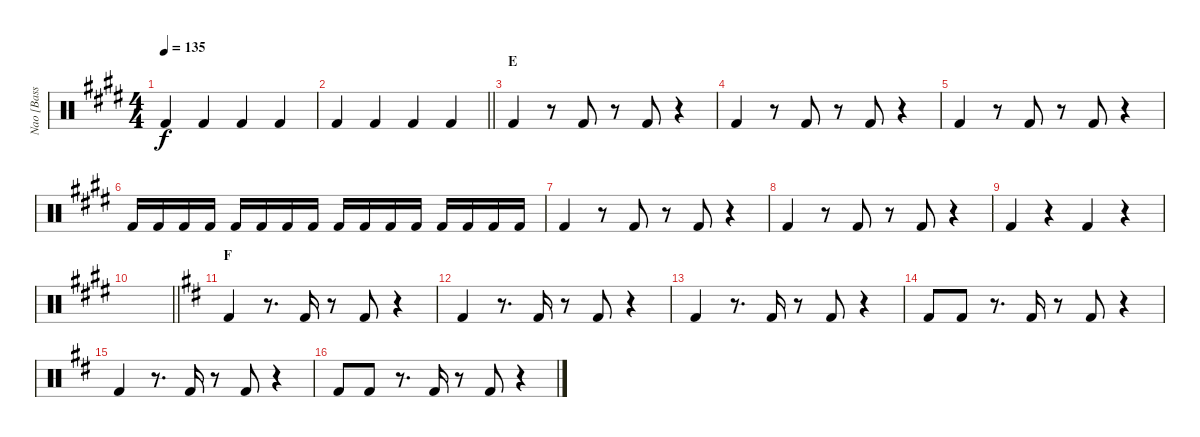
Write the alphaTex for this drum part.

\track ("Nao [Bass Drum]" "Nao [Bass ") {instrument percussion}
\staff {score}
\articulation defaults
\ts (4 4)
\tempo 135
\clef neutral
\ks e "Kick (hit) 2".4{dy f} "Kick (hit) 2".4 "Kick (hit) 2".4 "Kick (hit) 2".4
|
\barLineRight lightlight "Kick (hit) 2".4 "Kick (hit) 2".4 "Kick (hit) 2".4 "Kick (hit) 2".4
|
\section ("" "E")
"Kick (hit) 2".4 r.8 "Kick (hit) 2".8 r.8 "Kick (hit) 2".8 r.4 |
"Kick (hit) 2".4 r.8 "Kick (hit) 2".8 r.8 "Kick (hit) 2".8 r.4 |
"Kick (hit) 2".4 r.8 "Kick (hit) 2".8 r.8 "Kick (hit) 2".8 r.4 |
"Kick (hit) 2".16 "Kick (hit) 2".16 "Kick (hit) 2".16 "Kick (hit) 2".16 "Kick (hit) 2".16 "Kick (hit) 2".16 "Kick (hit) 2".16 "Kick (hit) 2".16 "Kick (hit) 2".16 "Kick (hit) 2".16 "Kick (hit) 2".16 "Kick (hit) 2".16 "Kick (hit) 2".16 "Kick (hit) 2".16 "Kick (hit) 2".16 "Kick (hit) 2".16 |
"Kick (hit) 2".4 r.8 "Kick (hit) 2".8 r.8 "Kick (hit) 2".8 r.4 |
"Kick (hit) 2".4 r.8 "Kick (hit) 2".8 r.8 "Kick (hit) 2".8 r.4 |
"Kick (hit) 2".4 r.4 "Kick (hit) 2".4 r.4 |
\barLineRight lightlight
|
\section ("" "F")
\ks d "Kick (hit) 2".4
r.8{d} "Kick (hit) 2".16 r.8 "Kick (hit) 2".8 r.4 |
"Kick (hit) 2".4 r.8{d} "Kick (hit) 2".16 r.8 "Kick (hit) 2".8 r.4 |
"Kick (hit) 2".4 r.8{d} "Kick (hit) 2".16 r.8 "Kick (hit) 2".8 r.4 |
"Kick (hit) 2".8 "Kick (hit) 2".8 r.8{d} "Kick (hit) 2".16 r.8 "Kick (hit) 2".8 r.4 |
"Kick (hit) 2".4 r.8{d} "Kick (hit) 2".16 r.8 "Kick (hit) 2".8 r.4 |
"Kick (hit) 2".8 "Kick (hit) 2".8 r.8{d} "Kick (hit) 2".16 r.8 "Kick (hit) 2".8 r.4
